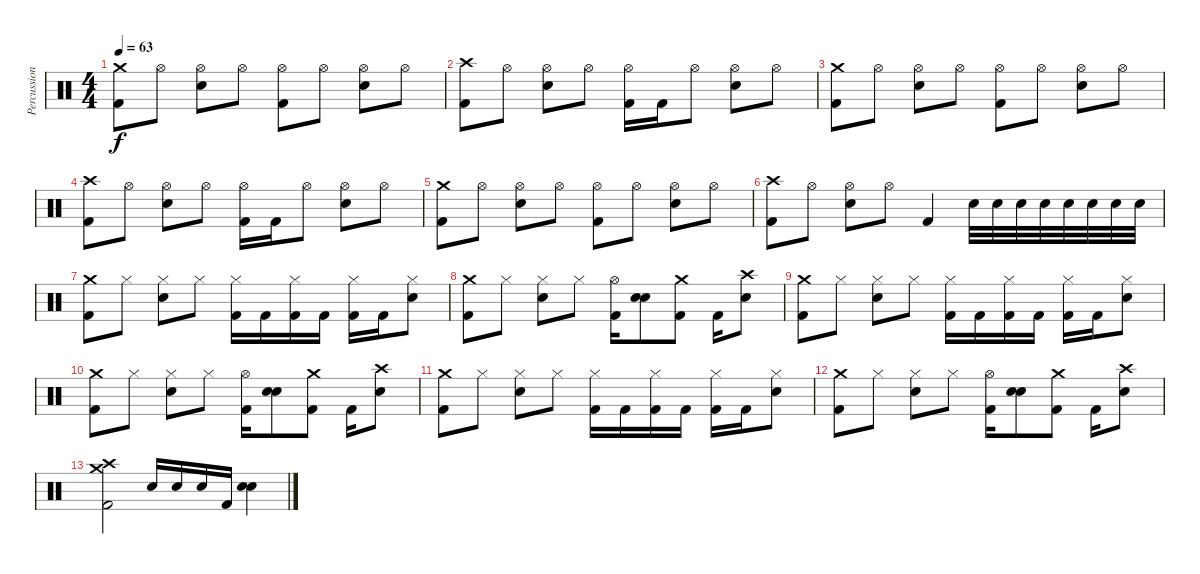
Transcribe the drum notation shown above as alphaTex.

\track ("Percussion" "Percussion") {instrument percussion}
\staff {score}
\articulation defaults
\ts (4 4)
\tempo 63
\clef neutral
\ks c
("Crash medium (hit)" "Kick (hit) 2").8{dy f} "Hi-Hat (open)".8 ("Hi-Hat (open)" "Snare (hit) 2").8 "Hi-Hat (open)".8 ("Hi-Hat (open)" "Kick (hit) 2").8 "Hi-Hat (open)".8 ("Hi-Hat (open)" "Snare (hit) 2").8 "Hi-Hat (open)".8 |
("Crash high (hit)" "Kick (hit) 2").8 "Hi-Hat (open)".8 ("Hi-Hat (open)" "Snare (hit) 2").8 "Hi-Hat (open)".8 ("Hi-Hat (open)" "Kick (hit) 2").16 "Kick (hit) 2".16 "Hi-Hat (open)".8 ("Hi-Hat (open)" "Snare (hit) 2").8 "Hi-Hat (open)".8 |
("Crash medium (hit)" "Kick (hit) 2").8 "Hi-Hat (open)".8 ("Hi-Hat (open)" "Snare (hit) 2").8 "Hi-Hat (open)".8 ("Hi-Hat (open)" "Kick (hit) 2").8 "Hi-Hat (open)".8 ("Hi-Hat (open)" "Snare (hit) 2").8 "Hi-Hat (open)".8 |
("Crash high (hit)" "Kick (hit) 2").8 "Hi-Hat (open)".8 ("Hi-Hat (open)" "Snare (hit) 2").8 "Hi-Hat (open)".8 ("Hi-Hat (open)" "Kick (hit) 2").16 "Kick (hit) 2".16 "Hi-Hat (open)".8 ("Hi-Hat (open)" "Snare (hit) 2").8 "Hi-Hat (open)".8 |
("Crash medium (hit)" "Kick (hit) 2").8 "Hi-Hat (open)".8 ("Hi-Hat (open)" "Snare (hit) 2").8 "Hi-Hat (open)".8 ("Hi-Hat (open)" "Kick (hit) 2").8 "Hi-Hat (open)".8 ("Hi-Hat (open)" "Snare (hit) 2").8 "Hi-Hat (open)".8 |
("Crash high (hit)" "Kick (hit) 2").8 "Hi-Hat (open)".8 ("Hi-Hat (open)" "Snare (hit) 2").8 "Hi-Hat (open)".8 "Kick (hit) 2".4 "Snare (hit) 2".32 "Snare (hit) 2".32 "Snare (hit) 2".32 "Snare (hit) 2".32 "Snare (hit) 2".32 "Snare (hit) 2".32 "Snare (hit) 2".32 "Snare (hit) 2".32 |
("Crash medium (hit)" "Kick (hit) 2").8 "Hi-Hat (closed)".8 ("Hi-Hat (closed)" "Snare (hit) 2").8 "Hi-Hat (closed)".8 ("Hi-Hat (closed)" "Kick (hit) 2").16 "Kick (hit) 2".16 ("Hi-Hat (closed)" "Kick (hit) 2").16 "Kick (hit) 2".16 ("Hi-Hat (closed)" "Kick (hit) 2").16 "Kick (hit) 2".16 ("Hi-Hat (closed)" "Snare (hit) 2").8 |
("Crash medium (hit)" "Kick (hit) 2").8 "Hi-Hat (closed)".8 ("Hi-Hat (closed)" "Snare (hit) 2").8 "Hi-Hat (closed)".8 ("Hi-Hat (open)" "Kick (hit) 2").16 ("Snare (hit) 2" "Snare (hit) 2").8{bd 120} ("Crash medium (hit)" "Kick (hit) 2").8 "Kick (hit) 2".16 ("Crash high (hit)" "Snare (hit) 2").8 |
("Crash medium (hit)" "Kick (hit) 2").8 "Hi-Hat (closed)".8 ("Hi-Hat (closed)" "Snare (hit) 2").8 "Hi-Hat (closed)".8 ("Hi-Hat (closed)" "Kick (hit) 2").16 "Kick (hit) 2".16 ("Hi-Hat (closed)" "Kick (hit) 2").16 "Kick (hit) 2".16 ("Hi-Hat (closed)" "Kick (hit) 2").16 "Kick (hit) 2".16 ("Hi-Hat (closed)" "Snare (hit) 2").8 |
("Crash medium (hit)" "Kick (hit) 2").8 "Hi-Hat (closed)".8 ("Hi-Hat (closed)" "Snare (hit) 2").8 "Hi-Hat (closed)".8 ("Hi-Hat (open)" "Kick (hit) 2").16 ("Snare (hit) 2" "Snare (hit) 2").8{bd 120} ("Crash medium (hit)" "Kick (hit) 2").8 "Kick (hit) 2".16 ("Crash high (hit)" "Snare (hit) 2").8 |
("Crash medium (hit)" "Kick (hit) 2").8 "Hi-Hat (closed)".8 ("Hi-Hat (closed)" "Snare (hit) 2").8 "Hi-Hat (closed)".8 ("Hi-Hat (closed)" "Kick (hit) 2").16 "Kick (hit) 2".16 ("Hi-Hat (closed)" "Kick (hit) 2").16 "Kick (hit) 2".16 ("Hi-Hat (closed)" "Kick (hit) 2").16 "Kick (hit) 2".16 ("Hi-Hat (closed)" "Snare (hit) 2").8 |
("Crash medium (hit)" "Kick (hit) 2").8 "Hi-Hat (closed)".8 ("Hi-Hat (closed)" "Snare (hit) 2").8 "Hi-Hat (closed)".8 ("Hi-Hat (open)" "Kick (hit) 2").16 ("Snare (hit) 2" "Snare (hit) 2").8{bd 120} ("Crash medium (hit)" "Kick (hit) 2").8 "Kick (hit) 2".16 ("Crash high (hit)" "Snare (hit) 2").8 |
("Crash medium (hit)" "Crash high (hit)" "Kick (hit) 2").2 "Snare (hit) 2".16 "Snare (hit) 2".16 "Snare (hit) 2".16 "Kick (hit) 2".16 ("Snare (hit) 2" "Snare (hit) 2").4{bd 120}
